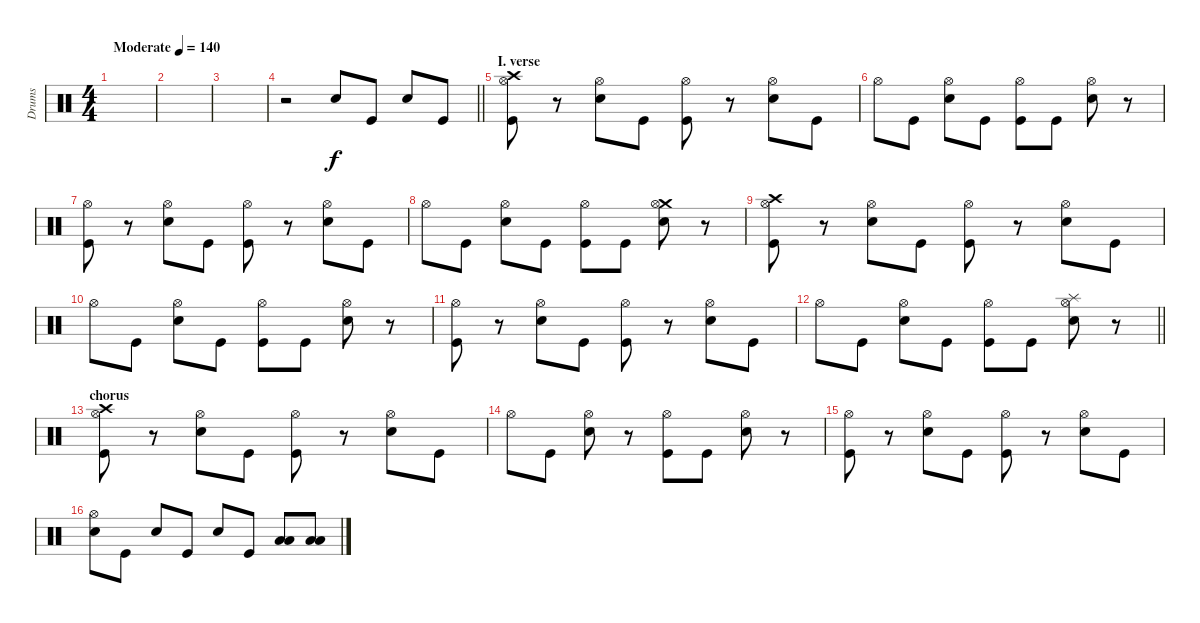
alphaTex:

\track ("Drums" "Drums") {instrument percussion}
\staff {score}
\articulation defaults
\ts (4 4)
\tempo (140 "Moderate")
\clef neutral
\ks c
|
|
|
\barLineRight lightlight
r.2 "Snare (hit) 2".8 "Kick (hit)".8 "Snare (hit) 2".8 "Kick (hit)".8 |
\section ("" "I. verse")
("Crash high (hit)" "Hi-Hat (open)" "Kick (hit)").8 r.8 ("Hi-Hat (open)" "Snare (hit) 2").8 "Kick (hit)".8 ("Hi-Hat (open)" "Kick (hit)").8 r.8 ("Hi-Hat (open)" "Snare (hit) 2").8 "Kick (hit)".8 |
"Hi-Hat (open)".8 "Kick (hit)".8 ("Hi-Hat (open)" "Snare (hit) 2").8 "Kick (hit)".8 ("Hi-Hat (open)" "Kick (hit)").8 "Kick (hit)".8 ("Hi-Hat (open)" "Snare (hit) 2").8 r.8 |
("Hi-Hat (open)" "Kick (hit)").8 r.8 ("Hi-Hat (open)" "Snare (hit) 2").8 "Kick (hit)".8 ("Hi-Hat (open)" "Kick (hit)").8 r.8 ("Hi-Hat (open)" "Snare (hit) 2").8 "Kick (hit)".8 |
"Hi-Hat (open)".8 "Kick (hit)".8 ("Hi-Hat (open)" "Snare (hit) 2").8 "Kick (hit)".8 ("Hi-Hat (open)" "Kick (hit)").8 "Kick (hit)".8 ("Crash medium (hit)" "Hi-Hat (open)" "Snare (hit) 2").8 r.8 |
("Crash high (hit)" "Hi-Hat (open)" "Kick (hit)").8 r.8 ("Hi-Hat (open)" "Snare (hit) 2").8 "Kick (hit)".8 ("Hi-Hat (open)" "Kick (hit)").8 r.8 ("Hi-Hat (open)" "Snare (hit) 2").8 "Kick (hit)".8 |
"Hi-Hat (open)".8 "Kick (hit)".8 ("Hi-Hat (open)" "Snare (hit) 2").8 "Kick (hit)".8 ("Hi-Hat (open)" "Kick (hit)").8 "Kick (hit)".8 ("Hi-Hat (open)" "Snare (hit) 2").8 r.8 |
("Hi-Hat (open)" "Kick (hit)").8 r.8 ("Hi-Hat (open)" "Snare (hit) 2").8 "Kick (hit)".8 ("Hi-Hat (open)" "Kick (hit)").8 r.8 ("Hi-Hat (open)" "Snare (hit) 2").8 "Kick (hit)".8 |
\barLineRight lightlight "Hi-Hat (open)".8 "Kick (hit)".8
("Hi-Hat (open)" "Snare (hit) 2").8 "Kick (hit)".8 ("Hi-Hat (open)" "Kick (hit)").8 "Kick (hit)".8 ("Splash (hit)" "Hi-Hat (open)" "Snare (hit) 2").8 r.8 |
\section ("" "chorus")
("Crash high (hit)" "Hi-Hat (open)" "Kick (hit)").8 r.8 ("Hi-Hat (open)" "Snare (hit) 2").8 "Kick (hit)".8 ("Hi-Hat (open)" "Kick (hit)").8 r.8 ("Hi-Hat (open)" "Snare (hit) 2").8 "Kick (hit)".8 |
"Hi-Hat (open)".8 "Kick (hit)".8 ("Hi-Hat (open)" "Snare (hit) 2").8 r.8 ("Hi-Hat (open)" "Kick (hit)").8 "Kick (hit)".8 ("Hi-Hat (open)" "Snare (hit) 2").8 r.8 |
("Hi-Hat (open)" "Kick (hit)").8 r.8 ("Hi-Hat (open)" "Snare (hit) 2").8 "Kick (hit)".8 ("Hi-Hat (open)" "Kick (hit)").8 r.8 ("Hi-Hat (open)" "Snare (hit) 2").8 "Kick (hit)".8 |
("Hi-Hat (open)" "Snare (hit) 2").8 "Kick (hit)".8 "Snare (hit) 2".8 "Kick (hit)".8 "Snare (hit) 2".8 "Kick (hit)".8 ("Low Tom (hit)" "Low Floor Tom (hit)").8 ("Low Tom (hit)" "Low Floor Tom (hit)").8
